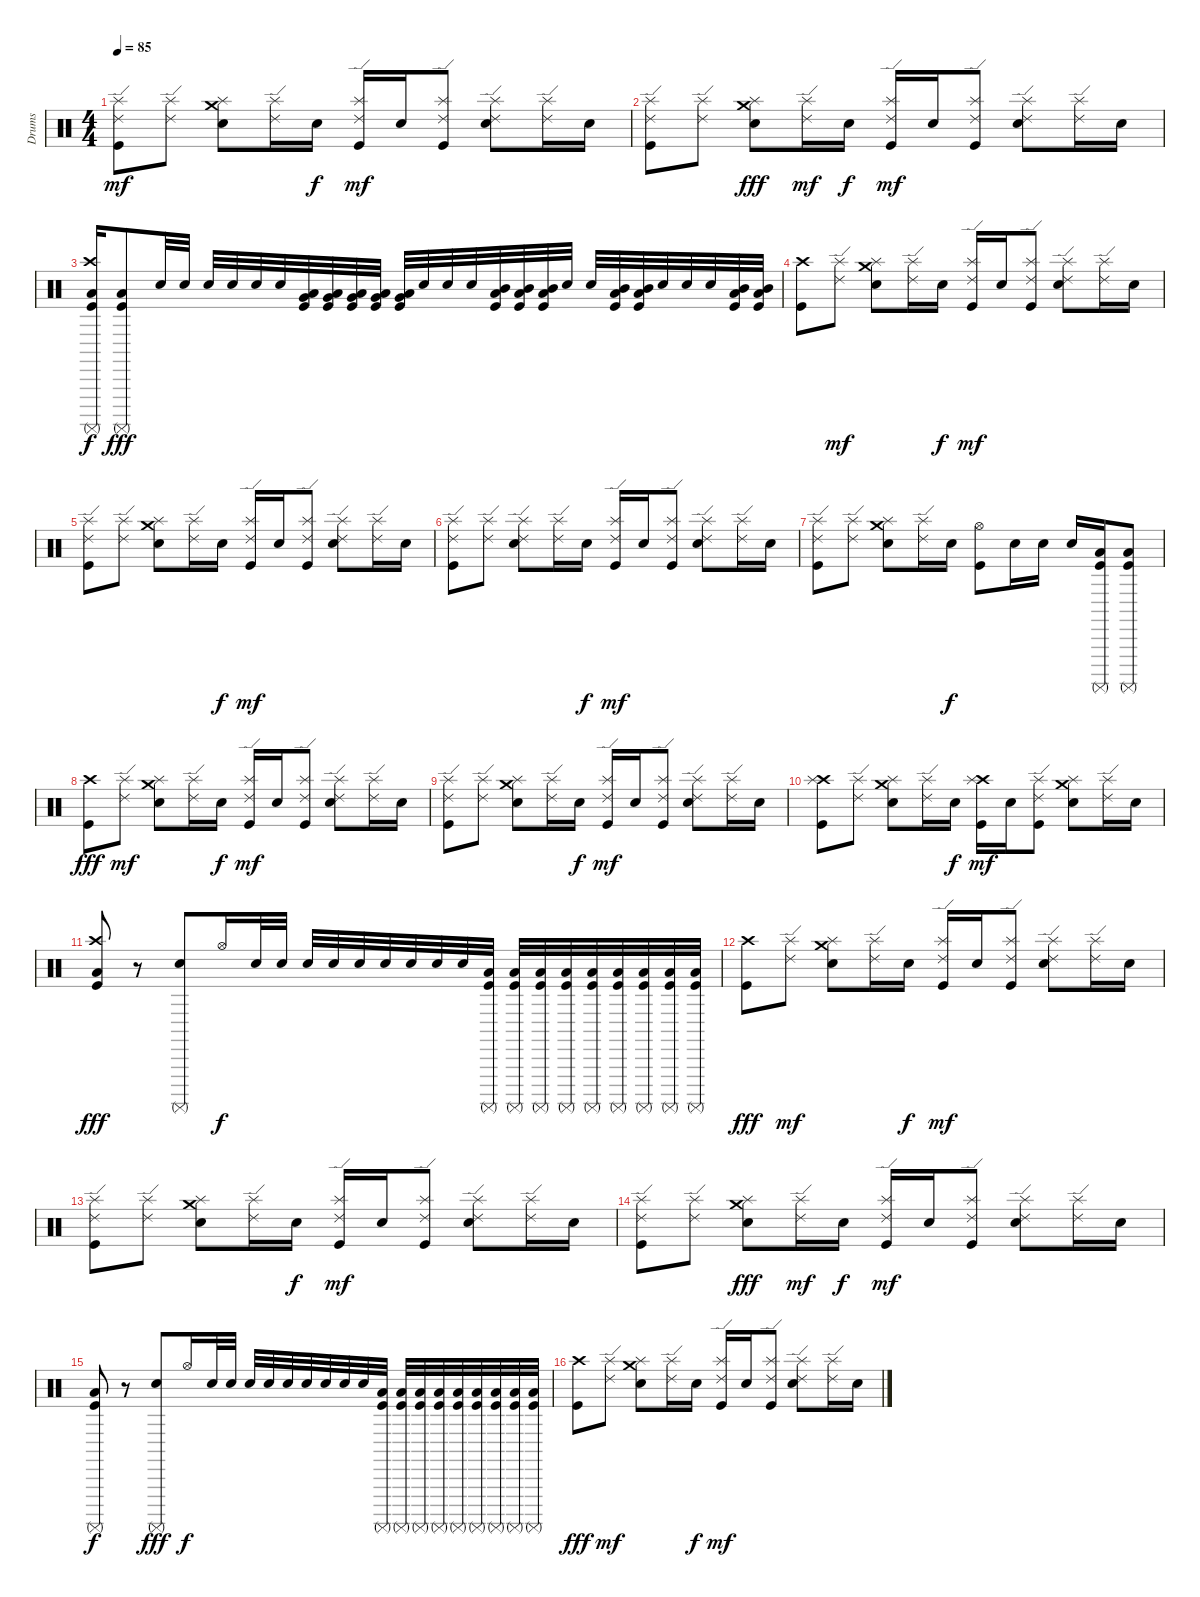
\track ("Drums" "Drums") {instrument percussion}
\staff {score}
\articulation defaults
\ts (4 4)
\tempo 85
\clef neutral
\ks c
("Ride (edge) 2" "Splash (hit)" "Kick (hit)").8{dy mf} ("Ride (edge) 2" "Splash (hit)").8 ("Crash medium (hit)" "Splash (hit)" "Snare (hit) 2").8 ("Ride (edge) 2" "Splash (hit)").16 "Snare (hit) 2".16{dy f} ("Ride (edge) 2" "Splash (hit)" "Kick (hit)").16{dy mf} "Snare (hit) 2".16 ("Ride (edge) 2" "Splash (hit)" "Kick (hit)").8 ("Ride (edge) 2" "Splash (hit)" "Snare (hit) 2").8 ("Ride (edge) 2" "Splash (hit)").16 "Snare (hit) 2".16 |
("Ride (edge) 2" "Splash (hit)" "Kick (hit)").8 ("Ride (edge) 2" "Splash (hit)").8 ("Crash medium (hit)" "Splash (hit)" "Snare (hit) 2").8{dy fff} ("Ride (edge) 2" "Splash (hit)").16{dy mf} "Snare (hit) 2".16{dy f} ("Ride (edge) 2" "Splash (hit)" "Kick (hit)").16{dy mf} "Snare (hit) 2".16 ("Ride (edge) 2" "Splash (hit)" "Kick (hit)").8 ("Ride (edge) 2" "Splash (hit)" "Snare (hit) 2").8 ("Ride (edge) 2" "Splash (hit)").16 "Snare (hit) 2".16 |
("Crash high (hit)" "Surdo (mute)" "Low Floor Tom (hit)" "Kick (hit)").16{dy f} ("Surdo (mute)" "Low Floor Tom (hit)" "Kick (hit)").8{dy fff} "Snare (hit) 2".32 "Snare (hit) 2".32 "Snare (hit) 2".32 "Snare (hit) 2".32 "Snare (hit) 2".32 "Snare (hit) 2".32 ("Low Floor Tom (hit)" "Very Low Tom (hit)" "Kick (hit)").32 ("Low Floor Tom (hit)" "Very Low Tom (hit)" "Kick (hit)").32 ("Low Floor Tom (hit)" "Very Low Tom (hit)" "Kick (hit)").32 ("Low Floor Tom (hit)" "Very Low Tom (hit)" "Kick (hit)").32 ("Low Floor Tom (hit)" "Very Low Tom (hit)" "Kick (hit)").32 "Snare (hit) 2".32 "Snare (hit) 2".32 "Snare (hit) 2".32 ("Mid Tom (hit)" "Low Tom (hit)" "Kick (hit)").32 ("Mid Tom (hit)" "Low Tom (hit)" "Kick (hit)").32 ("Mid Tom (hit)" "Low Tom (hit)" "Kick (hit)").32 "Snare (hit) 2".32 "Snare (hit) 2".32 ("Mid Tom (hit)" "Low Tom (hit)" "Kick (hit)").32 ("Mid Tom (hit)" "Low Tom (hit)" "Kick (hit)").32 "Snare (hit) 2".32 "Snare (hit) 2".32 "Snare (hit) 2".32 ("Mid Tom (hit)" "Low Tom (hit)" "Kick (hit)").32 ("Mid Tom (hit)" "Low Tom (hit)" "Kick (hit)").32 |
("Crash high (hit)" "Kick (hit)").8 ("Ride (edge) 2" "Splash (hit)").8{dy mf} ("Crash medium (hit)" "Splash (hit)" "Snare (hit) 2").8 ("Ride (edge) 2" "Splash (hit)").16 "Snare (hit) 2".16{dy f} ("Ride (edge) 2" "Splash (hit)" "Kick (hit)").16{dy mf} "Snare (hit) 2".16 ("Ride (edge) 2" "Splash (hit)" "Kick (hit)").8 ("Ride (edge) 2" "Splash (hit)" "Snare (hit) 2").8 ("Ride (edge) 2" "Splash (hit)").16 "Snare (hit) 2".16 |
("Ride (edge) 2" "Splash (hit)" "Kick (hit)").8 ("Ride (edge) 2" "Splash (hit)").8 ("Crash medium (hit)" "Splash (hit)" "Snare (hit) 2").8 ("Ride (edge) 2" "Splash (hit)").16 "Snare (hit) 2".16{dy f} ("Ride (edge) 2" "Splash (hit)" "Kick (hit)").16{dy mf} "Snare (hit) 2".16 ("Ride (edge) 2" "Splash (hit)" "Kick (hit)").8 ("Ride (edge) 2" "Splash (hit)" "Snare (hit) 2").8 ("Ride (edge) 2" "Splash (hit)").16 "Snare (hit) 2".16 |
("Ride (edge) 2" "Splash (hit)" "Kick (hit)").8 ("Ride (edge) 2" "Splash (hit)").8 ("Ride (edge) 2" "Splash (hit)" "Snare (hit) 2").8 ("Ride (edge) 2" "Splash (hit)").16 "Snare (hit) 2".16{dy f} ("Ride (edge) 2" "Splash (hit)" "Kick (hit)").16{dy mf} "Snare (hit) 2".16 ("Ride (edge) 2" "Splash (hit)" "Kick (hit)").8 ("Ride (edge) 2" "Splash (hit)" "Snare (hit) 2").8 ("Ride (edge) 2" "Splash (hit)").16 "Snare (hit) 2".16 |
("Ride (edge) 2" "Splash (hit)" "Kick (hit)").8 ("Ride (edge) 2" "Splash (hit)").8 ("Crash medium (hit)" "Splash (hit)" "Snare (hit) 2").8 ("Ride (edge) 2" "Splash (hit)").16 "Snare (hit) 2".16{dy f} ("Hi-Hat (open)" "Kick (hit)").8 "Snare (hit) 2".16 "Snare (hit) 2".16 "Snare (hit) 2".16 ("Surdo (mute)" "Low Floor Tom (hit)" "Kick (hit)").16 ("Surdo (mute)" "Low Floor Tom (hit)" "Kick (hit)").8 |
("Crash high (hit)" "Kick (hit)").8{dy fff} ("Ride (edge) 2" "Splash (hit)").8{dy mf} ("Crash medium (hit)" "Splash (hit)" "Snare (hit) 2").8 ("Ride (edge) 2" "Splash (hit)").16 "Snare (hit) 2".16{dy f} ("Ride (edge) 2" "Splash (hit)" "Kick (hit)").16{dy mf} "Snare (hit) 2".16 ("Ride (edge) 2" "Splash (hit)" "Kick (hit)").8 ("Ride (edge) 2" "Splash (hit)" "Snare (hit) 2").8 ("Ride (edge) 2" "Splash (hit)").16 "Snare (hit) 2".16 |
("Ride (edge) 2" "Splash (hit)" "Kick (hit)").8 ("Ride (edge) 2" "Splash (hit)").8 ("Crash medium (hit)" "Splash (hit)" "Snare (hit) 2").8 ("Ride (edge) 2" "Splash (hit)").16 "Snare (hit) 2".16{dy f} ("Ride (edge) 2" "Splash (hit)" "Kick (hit)").16{dy mf} "Snare (hit) 2".16 ("Ride (edge) 2" "Splash (hit)" "Kick (hit)").8 ("Ride (edge) 2" "Splash (hit)" "Snare (hit) 2").8 ("Ride (edge) 2" "Splash (hit)").16 "Snare (hit) 2".16 |
("Crash high (hit)" "Splash (hit)" "Kick (hit)").8 ("Ride (edge) 2" "Splash (hit)").8 ("Crash medium (hit)" "Splash (hit)" "Snare (hit) 2").8 ("Ride (edge) 2" "Splash (hit)").16 "Snare (hit) 2".16{dy f} ("Crash high (hit)" "Splash (hit)" "Kick (hit)").16{dy mf} "Snare (hit) 2".16 ("Ride (edge) 2" "Splash (hit)" "Kick (hit)").8 ("Crash medium (hit)" "Splash (hit)" "Snare (hit) 2").8 ("Ride (edge) 2" "Splash (hit)").16 "Snare (hit) 2".16 |
("Crash high (hit)" "Low Floor Tom (hit)" "Kick (hit)").8{dy fff} r.8 ("Surdo (mute)" "Snare (hit) 2").8 "Hi-Hat (open)".16{dy f} "Snare (hit) 2".32 "Snare (hit) 2".32 "Snare (hit) 2".32 "Snare (hit) 2".32 "Snare (hit) 2".32 "Snare (hit) 2".32 "Snare (hit) 2".32 "Snare (hit) 2".32 "Snare (hit) 2".32 ("Surdo (mute)" "Low Floor Tom (hit)" "Kick (hit)").32 ("Surdo (mute)" "Low Floor Tom (hit)" "Kick (hit)").32 ("Surdo (mute)" "Low Floor Tom (hit)" "Kick (hit)").32 ("Surdo (mute)" "Low Floor Tom (hit)" "Kick (hit)").32 ("Surdo (mute)" "Low Floor Tom (hit)" "Kick (hit)").32 ("Surdo (mute)" "Low Floor Tom (hit)" "Kick (hit)").32 ("Surdo (mute)" "Low Floor Tom (hit)" "Kick (hit)").32 ("Surdo (mute)" "Low Floor Tom (hit)" "Kick (hit)").32 ("Surdo (mute)" "Low Floor Tom (hit)" "Kick (hit)").32 |
("Crash high (hit)" "Kick (hit)").8{dy fff} ("Ride (edge) 2" "Splash (hit)").8{dy mf} ("Crash medium (hit)" "Splash (hit)" "Snare (hit) 2").8 ("Ride (edge) 2" "Splash (hit)").16 "Snare (hit) 2".16{dy f} ("Ride (edge) 2" "Splash (hit)" "Kick (hit)").16{dy mf} "Snare (hit) 2".16 ("Ride (edge) 2" "Splash (hit)" "Kick (hit)").8 ("Ride (edge) 2" "Splash (hit)" "Snare (hit) 2").8 ("Ride (edge) 2" "Splash (hit)").16 "Snare (hit) 2".16 |
("Ride (edge) 2" "Splash (hit)" "Kick (hit)").8 ("Ride (edge) 2" "Splash (hit)").8 ("Crash medium (hit)" "Splash (hit)" "Snare (hit) 2").8 ("Ride (edge) 2" "Splash (hit)").16 "Snare (hit) 2".16{dy f} ("Ride (edge) 2" "Splash (hit)" "Kick (hit)").16{dy mf} "Snare (hit) 2".16 ("Ride (edge) 2" "Splash (hit)" "Kick (hit)").8 ("Ride (edge) 2" "Splash (hit)" "Snare (hit) 2").8 ("Ride (edge) 2" "Splash (hit)").16 "Snare (hit) 2".16 |
("Ride (edge) 2" "Splash (hit)" "Kick (hit)").8 ("Ride (edge) 2" "Splash (hit)").8 ("Crash medium (hit)" "Splash (hit)" "Snare (hit) 2").8{dy fff} ("Ride (edge) 2" "Splash (hit)").16{dy mf} "Snare (hit) 2".16{dy f} ("Ride (edge) 2" "Splash (hit)" "Kick (hit)").16{dy mf} "Snare (hit) 2".16 ("Ride (edge) 2" "Splash (hit)" "Kick (hit)").8 ("Ride (edge) 2" "Splash (hit)" "Snare (hit) 2").8 ("Ride (edge) 2" "Splash (hit)").16 "Snare (hit) 2".16 |
("Surdo (mute)" "Low Floor Tom (hit)" "Kick (hit)").8{dy f} r.8 ("Surdo (mute)" "Snare (hit) 2").8{dy fff} "Hi-Hat (open)".16{dy f} "Snare (hit) 2".32 "Snare (hit) 2".32 "Snare (hit) 2".32 "Snare (hit) 2".32 "Snare (hit) 2".32 "Snare (hit) 2".32 "Snare (hit) 2".32 "Snare (hit) 2".32 "Snare (hit) 2".32 ("Surdo (mute)" "Low Floor Tom (hit)" "Kick (hit)").32 ("Surdo (mute)" "Low Floor Tom (hit)" "Kick (hit)").32 ("Surdo (mute)" "Low Floor Tom (hit)" "Kick (hit)").32 ("Surdo (mute)" "Low Floor Tom (hit)" "Kick (hit)").32 ("Surdo (mute)" "Low Floor Tom (hit)" "Kick (hit)").32 ("Surdo (mute)" "Low Floor Tom (hit)" "Kick (hit)").32 ("Surdo (mute)" "Low Floor Tom (hit)" "Kick (hit)").32 ("Surdo (mute)" "Low Floor Tom (hit)" "Kick (hit)").32 ("Surdo (mute)" "Low Floor Tom (hit)" "Kick (hit)").32 |
("Crash high (hit)" "Kick (hit)").8{dy fff} ("Ride (edge) 2" "Splash (hit)").8{dy mf} ("Crash medium (hit)" "Splash (hit)" "Snare (hit) 2").8 ("Ride (edge) 2" "Splash (hit)").16 "Snare (hit) 2".16{dy f} ("Ride (edge) 2" "Splash (hit)" "Kick (hit)").16{dy mf} "Snare (hit) 2".16 ("Ride (edge) 2" "Splash (hit)" "Kick (hit)").8 ("Ride (edge) 2" "Splash (hit)" "Snare (hit) 2").8 ("Ride (edge) 2" "Splash (hit)").16 "Snare (hit) 2".16
